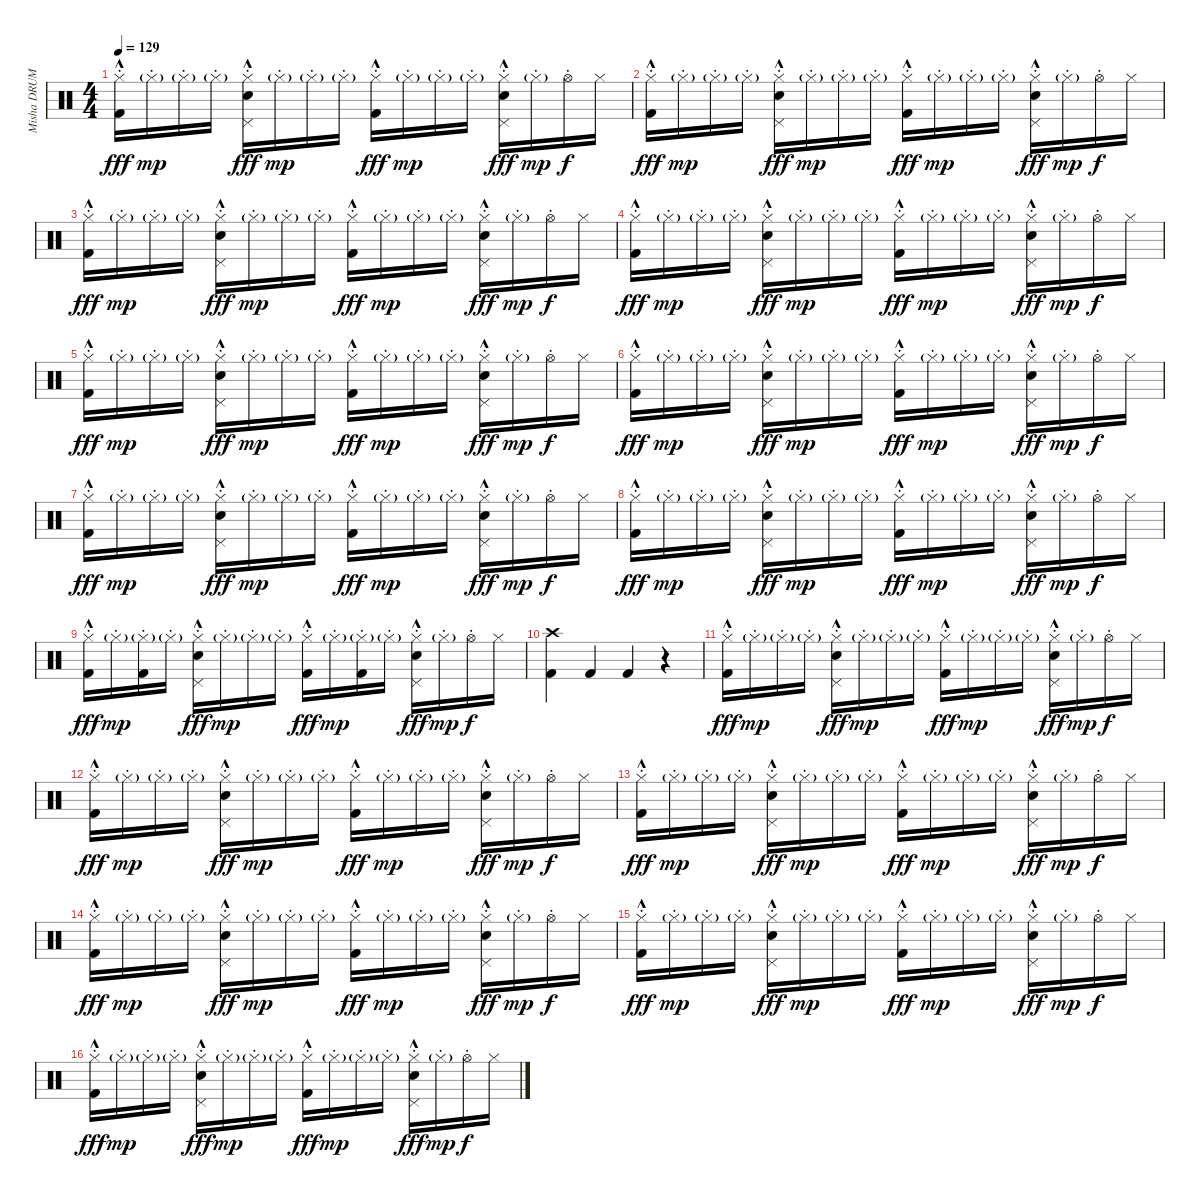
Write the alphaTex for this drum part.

\track ("Misha DRUMS" "Misha DRUM") {instrument percussion}
\staff {score}
\articulation defaults
\ts (4 4)
\tempo 129
\clef neutral
\ks c
("Hi-Hat (closed)"{hac st} "Kick (hit) 2").16{dy fff} "Hi-Hat (closed)"{g st}.16{dy mp} "Hi-Hat (closed)"{g st}.16 "Hi-Hat (closed)"{g st}.16 ("Hi-Hat (closed)"{hac st} "Pedal Hi-Hat (hit)" "Snare (hit) 2").16{dy fff} "Hi-Hat (closed)"{g st}.16{dy mp} "Hi-Hat (closed)"{g st}.16 "Hi-Hat (closed)"{g st}.16 ("Hi-Hat (closed)"{hac st} "Kick (hit) 2").16{dy fff} "Hi-Hat (closed)"{g st}.16{dy mp} "Hi-Hat (closed)"{g st}.16 "Hi-Hat (closed)"{g st}.16 ("Hi-Hat (closed)"{hac st} "Pedal Hi-Hat (hit)" "Snare (hit) 2").16{dy fff} "Hi-Hat (closed)"{g st}.16{dy mp} "Hi-Hat (open)"{st}.16{dy f} "Hi-Hat (closed)".16 |
("Hi-Hat (closed)"{hac st} "Kick (hit) 2").16{dy fff} "Hi-Hat (closed)"{g st}.16{dy mp} "Hi-Hat (closed)"{g st}.16 "Hi-Hat (closed)"{g st}.16 ("Hi-Hat (closed)"{hac st} "Pedal Hi-Hat (hit)" "Snare (hit) 2").16{dy fff} "Hi-Hat (closed)"{g st}.16{dy mp} "Hi-Hat (closed)"{g st}.16 "Hi-Hat (closed)"{g st}.16 ("Hi-Hat (closed)"{hac st} "Kick (hit) 2").16{dy fff} "Hi-Hat (closed)"{g st}.16{dy mp} "Hi-Hat (closed)"{g st}.16 "Hi-Hat (closed)"{g st}.16 ("Hi-Hat (closed)"{hac st} "Pedal Hi-Hat (hit)" "Snare (hit) 2").16{dy fff} "Hi-Hat (closed)"{g st}.16{dy mp} "Hi-Hat (open)"{st}.16{dy f} "Hi-Hat (closed)".16 |
("Hi-Hat (closed)"{hac st} "Kick (hit) 2").16{dy fff} "Hi-Hat (closed)"{g st}.16{dy mp} "Hi-Hat (closed)"{g st}.16 "Hi-Hat (closed)"{g st}.16 ("Hi-Hat (closed)"{hac st} "Pedal Hi-Hat (hit)" "Snare (hit) 2").16{dy fff} "Hi-Hat (closed)"{g st}.16{dy mp} "Hi-Hat (closed)"{g st}.16 "Hi-Hat (closed)"{g st}.16 ("Hi-Hat (closed)"{hac st} "Kick (hit) 2").16{dy fff} "Hi-Hat (closed)"{g st}.16{dy mp} "Hi-Hat (closed)"{g st}.16 "Hi-Hat (closed)"{g st}.16 ("Hi-Hat (closed)"{hac st} "Pedal Hi-Hat (hit)" "Snare (hit) 2").16{dy fff} "Hi-Hat (closed)"{g st}.16{dy mp} "Hi-Hat (open)"{st}.16{dy f} "Hi-Hat (closed)".16 |
("Hi-Hat (closed)"{hac st} "Kick (hit) 2").16{dy fff} "Hi-Hat (closed)"{g st}.16{dy mp} "Hi-Hat (closed)"{g st}.16 "Hi-Hat (closed)"{g st}.16 ("Hi-Hat (closed)"{hac st} "Pedal Hi-Hat (hit)" "Snare (hit) 2").16{dy fff} "Hi-Hat (closed)"{g st}.16{dy mp} "Hi-Hat (closed)"{g st}.16 "Hi-Hat (closed)"{g st}.16 ("Hi-Hat (closed)"{hac st} "Kick (hit) 2").16{dy fff} "Hi-Hat (closed)"{g st}.16{dy mp} "Hi-Hat (closed)"{g st}.16 "Hi-Hat (closed)"{g st}.16 ("Hi-Hat (closed)"{hac st} "Pedal Hi-Hat (hit)" "Snare (hit) 2").16{dy fff} "Hi-Hat (closed)"{g st}.16{dy mp} "Hi-Hat (open)"{st}.16{dy f} "Hi-Hat (closed)".16 |
("Hi-Hat (closed)"{hac st} "Kick (hit) 2").16{dy fff} "Hi-Hat (closed)"{g st}.16{dy mp} "Hi-Hat (closed)"{g st}.16 "Hi-Hat (closed)"{g st}.16 ("Hi-Hat (closed)"{hac st} "Pedal Hi-Hat (hit)" "Snare (hit) 2").16{dy fff} "Hi-Hat (closed)"{g st}.16{dy mp} "Hi-Hat (closed)"{g st}.16 "Hi-Hat (closed)"{g st}.16 ("Hi-Hat (closed)"{hac st} "Kick (hit) 2").16{dy fff} "Hi-Hat (closed)"{g st}.16{dy mp} "Hi-Hat (closed)"{g st}.16 "Hi-Hat (closed)"{g st}.16 ("Hi-Hat (closed)"{hac st} "Pedal Hi-Hat (hit)" "Snare (hit) 2").16{dy fff} "Hi-Hat (closed)"{g st}.16{dy mp} "Hi-Hat (open)"{st}.16{dy f} "Hi-Hat (closed)".16 |
("Hi-Hat (closed)"{hac st} "Kick (hit) 2").16{dy fff} "Hi-Hat (closed)"{g st}.16{dy mp} "Hi-Hat (closed)"{g st}.16 "Hi-Hat (closed)"{g st}.16 ("Hi-Hat (closed)"{hac st} "Pedal Hi-Hat (hit)" "Snare (hit) 2").16{dy fff} "Hi-Hat (closed)"{g st}.16{dy mp} "Hi-Hat (closed)"{g st}.16 "Hi-Hat (closed)"{g st}.16 ("Hi-Hat (closed)"{hac st} "Kick (hit) 2").16{dy fff} "Hi-Hat (closed)"{g st}.16{dy mp} "Hi-Hat (closed)"{g st}.16 "Hi-Hat (closed)"{g st}.16 ("Hi-Hat (closed)"{hac st} "Pedal Hi-Hat (hit)" "Snare (hit) 2").16{dy fff} "Hi-Hat (closed)"{g st}.16{dy mp} "Hi-Hat (open)"{st}.16{dy f} "Hi-Hat (closed)".16 |
("Hi-Hat (closed)"{hac st} "Kick (hit) 2").16{dy fff} "Hi-Hat (closed)"{g st}.16{dy mp} "Hi-Hat (closed)"{g st}.16 "Hi-Hat (closed)"{g st}.16 ("Hi-Hat (closed)"{hac st} "Pedal Hi-Hat (hit)" "Snare (hit) 2").16{dy fff} "Hi-Hat (closed)"{g st}.16{dy mp} "Hi-Hat (closed)"{g st}.16 "Hi-Hat (closed)"{g st}.16 ("Hi-Hat (closed)"{hac st} "Kick (hit) 2").16{dy fff} "Hi-Hat (closed)"{g st}.16{dy mp} "Hi-Hat (closed)"{g st}.16 "Hi-Hat (closed)"{g st}.16 ("Hi-Hat (closed)"{hac st} "Pedal Hi-Hat (hit)" "Snare (hit) 2").16{dy fff} "Hi-Hat (closed)"{g st}.16{dy mp} "Hi-Hat (open)"{st}.16{dy f} "Hi-Hat (closed)".16 |
("Hi-Hat (closed)"{hac st} "Kick (hit) 2").16{dy fff} "Hi-Hat (closed)"{g st}.16{dy mp} "Hi-Hat (closed)"{g st}.16 "Hi-Hat (closed)"{g st}.16 ("Hi-Hat (closed)"{hac st} "Pedal Hi-Hat (hit)" "Snare (hit) 2").16{dy fff} "Hi-Hat (closed)"{g st}.16{dy mp} "Hi-Hat (closed)"{g st}.16 "Hi-Hat (closed)"{g st}.16 ("Hi-Hat (closed)"{hac st} "Kick (hit) 2").16{dy fff} "Hi-Hat (closed)"{g st}.16{dy mp} "Hi-Hat (closed)"{g st}.16 "Hi-Hat (closed)"{g st}.16 ("Hi-Hat (closed)"{hac st} "Pedal Hi-Hat (hit)" "Snare (hit) 2").16{dy fff} "Hi-Hat (closed)"{g st}.16{dy mp} "Hi-Hat (open)"{st}.16{dy f} "Hi-Hat (closed)".16 |
("Hi-Hat (closed)"{hac st} "Kick (hit) 2").16{dy fff} "Hi-Hat (closed)"{g st}.16{dy mp} ("Hi-Hat (closed)"{g st} "Kick (hit) 2").16 "Hi-Hat (closed)"{g st}.16 ("Hi-Hat (closed)"{hac st} "Pedal Hi-Hat (hit)" "Snare (hit) 2").16{dy fff} "Hi-Hat (closed)"{g st}.16{dy mp} "Hi-Hat (closed)"{g st}.16 "Hi-Hat (closed)"{g st}.16 ("Hi-Hat (closed)"{hac st} "Kick (hit) 2").16{dy fff} "Hi-Hat (closed)"{g st}.16{dy mp} ("Hi-Hat (closed)"{g st} "Kick (hit) 2").16 "Hi-Hat (closed)"{g st}.16 ("Hi-Hat (closed)"{hac st} "Pedal Hi-Hat (hit)" "Snare (hit) 2").16{dy fff} "Hi-Hat (closed)"{g st}.16{dy mp} "Hi-Hat (open)"{st}.16{dy f} "Hi-Hat (closed)".16 |
("Crash high (hit)" "Kick (hit) 2").4 "Kick (hit) 2".4 "Kick (hit) 2".4 r.4 |
("Hi-Hat (closed)"{hac st} "Kick (hit) 2").16{dy fff} "Hi-Hat (closed)"{g st}.16{dy mp} "Hi-Hat (closed)"{g st}.16 "Hi-Hat (closed)"{g st}.16 ("Hi-Hat (closed)"{hac st} "Pedal Hi-Hat (hit)" "Snare (hit) 2").16{dy fff} "Hi-Hat (closed)"{g st}.16{dy mp} "Hi-Hat (closed)"{g st}.16 "Hi-Hat (closed)"{g st}.16 ("Hi-Hat (closed)"{hac st} "Kick (hit) 2").16{dy fff} "Hi-Hat (closed)"{g st}.16{dy mp} "Hi-Hat (closed)"{g st}.16 "Hi-Hat (closed)"{g st}.16 ("Hi-Hat (closed)"{hac st} "Pedal Hi-Hat (hit)" "Snare (hit) 2").16{dy fff} "Hi-Hat (closed)"{g st}.16{dy mp} "Hi-Hat (open)"{st}.16{dy f} "Hi-Hat (closed)".16 |
("Hi-Hat (closed)"{hac st} "Kick (hit) 2").16{dy fff} "Hi-Hat (closed)"{g st}.16{dy mp} "Hi-Hat (closed)"{g st}.16 "Hi-Hat (closed)"{g st}.16 ("Hi-Hat (closed)"{hac st} "Pedal Hi-Hat (hit)" "Snare (hit) 2").16{dy fff} "Hi-Hat (closed)"{g st}.16{dy mp} "Hi-Hat (closed)"{g st}.16 "Hi-Hat (closed)"{g st}.16 ("Hi-Hat (closed)"{hac st} "Kick (hit) 2").16{dy fff} "Hi-Hat (closed)"{g st}.16{dy mp} "Hi-Hat (closed)"{g st}.16 "Hi-Hat (closed)"{g st}.16 ("Hi-Hat (closed)"{hac st} "Pedal Hi-Hat (hit)" "Snare (hit) 2").16{dy fff} "Hi-Hat (closed)"{g st}.16{dy mp} "Hi-Hat (open)"{st}.16{dy f} "Hi-Hat (closed)".16 |
("Hi-Hat (closed)"{hac st} "Kick (hit) 2").16{dy fff} "Hi-Hat (closed)"{g st}.16{dy mp} "Hi-Hat (closed)"{g st}.16 "Hi-Hat (closed)"{g st}.16 ("Hi-Hat (closed)"{hac st} "Pedal Hi-Hat (hit)" "Snare (hit) 2").16{dy fff} "Hi-Hat (closed)"{g st}.16{dy mp} "Hi-Hat (closed)"{g st}.16 "Hi-Hat (closed)"{g st}.16 ("Hi-Hat (closed)"{hac st} "Kick (hit) 2").16{dy fff} "Hi-Hat (closed)"{g st}.16{dy mp} "Hi-Hat (closed)"{g st}.16 "Hi-Hat (closed)"{g st}.16 ("Hi-Hat (closed)"{hac st} "Pedal Hi-Hat (hit)" "Snare (hit) 2").16{dy fff} "Hi-Hat (closed)"{g st}.16{dy mp} "Hi-Hat (open)"{st}.16{dy f} "Hi-Hat (closed)".16 |
("Hi-Hat (closed)"{hac st} "Kick (hit) 2").16{dy fff} "Hi-Hat (closed)"{g st}.16{dy mp} "Hi-Hat (closed)"{g st}.16 "Hi-Hat (closed)"{g st}.16 ("Hi-Hat (closed)"{hac st} "Pedal Hi-Hat (hit)" "Snare (hit) 2").16{dy fff} "Hi-Hat (closed)"{g st}.16{dy mp} "Hi-Hat (closed)"{g st}.16 "Hi-Hat (closed)"{g st}.16 ("Hi-Hat (closed)"{hac st} "Kick (hit) 2").16{dy fff} "Hi-Hat (closed)"{g st}.16{dy mp} "Hi-Hat (closed)"{g st}.16 "Hi-Hat (closed)"{g st}.16 ("Hi-Hat (closed)"{hac st} "Pedal Hi-Hat (hit)" "Snare (hit) 2").16{dy fff} "Hi-Hat (closed)"{g st}.16{dy mp} "Hi-Hat (open)"{st}.16{dy f} "Hi-Hat (closed)".16 |
("Hi-Hat (closed)"{hac st} "Kick (hit) 2").16{dy fff} "Hi-Hat (closed)"{g st}.16{dy mp} "Hi-Hat (closed)"{g st}.16 "Hi-Hat (closed)"{g st}.16 ("Hi-Hat (closed)"{hac st} "Pedal Hi-Hat (hit)" "Snare (hit) 2").16{dy fff} "Hi-Hat (closed)"{g st}.16{dy mp} "Hi-Hat (closed)"{g st}.16 "Hi-Hat (closed)"{g st}.16 ("Hi-Hat (closed)"{hac st} "Kick (hit) 2").16{dy fff} "Hi-Hat (closed)"{g st}.16{dy mp} "Hi-Hat (closed)"{g st}.16 "Hi-Hat (closed)"{g st}.16 ("Hi-Hat (closed)"{hac st} "Pedal Hi-Hat (hit)" "Snare (hit) 2").16{dy fff} "Hi-Hat (closed)"{g st}.16{dy mp} "Hi-Hat (open)"{st}.16{dy f} "Hi-Hat (closed)".16 |
("Hi-Hat (closed)"{hac st} "Kick (hit) 2").16{dy fff} "Hi-Hat (closed)"{g st}.16{dy mp} "Hi-Hat (closed)"{g st}.16 "Hi-Hat (closed)"{g st}.16 ("Hi-Hat (closed)"{hac st} "Pedal Hi-Hat (hit)" "Snare (hit) 2").16{dy fff} "Hi-Hat (closed)"{g st}.16{dy mp} "Hi-Hat (closed)"{g st}.16 "Hi-Hat (closed)"{g st}.16 ("Hi-Hat (closed)"{hac st} "Kick (hit) 2").16{dy fff} "Hi-Hat (closed)"{g st}.16{dy mp} "Hi-Hat (closed)"{g st}.16 "Hi-Hat (closed)"{g st}.16 ("Hi-Hat (closed)"{hac st} "Pedal Hi-Hat (hit)" "Snare (hit) 2").16{dy fff} "Hi-Hat (closed)"{g st}.16{dy mp} "Hi-Hat (open)"{st}.16{dy f} "Hi-Hat (closed)".16
